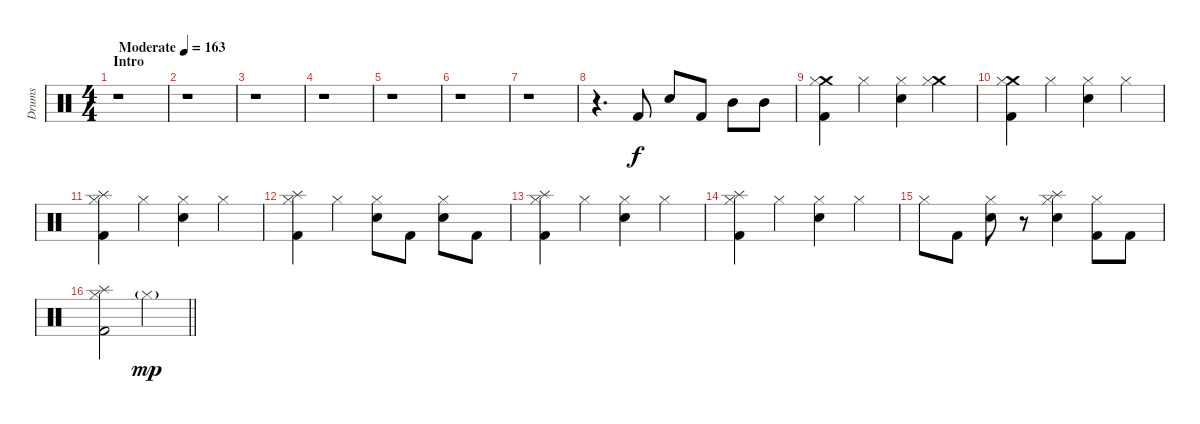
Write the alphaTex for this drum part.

\track ("Drums" "Drums") {instrument percussion}
\staff {score}
\articulation defaults
\ts (4 4)
\section ("" "Intro")
\tempo (163 "Moderate")
\clef neutral
\ks c
r.1{dy f} |
r.1 |
r.1 |
r.1 |
r.1 |
r.1 |
r.1 |
r.4{d} "Kick (hit) 2".8 "Snare (hit) 2".8 "Kick (hit) 2".8 "Mid Tom (hit)".8 "Mid Tom (hit)".8 |
("Crash medium (hit)" "Kick (hit) 2" "Hi-Hat (closed)").4 "Hi-Hat (closed)".4 ("Snare (hit) 2" "Hi-Hat (closed)").4 ("Crash medium (hit)" "Hi-Hat (closed)").4 |
("Crash medium (hit)" "Kick (hit) 2" "Hi-Hat (closed)").4 "Hi-Hat (closed)".4 ("Snare (hit) 2" "Hi-Hat (closed)").4 "Hi-Hat (closed)".4 |
("Splash (hit)" "Kick (hit) 2" "Hi-Hat (closed)").4 "Hi-Hat (closed)".4 ("Snare (hit) 2" "Hi-Hat (closed)").4 "Hi-Hat (closed)".4 |
("Splash (hit)" "Kick (hit) 2" "Hi-Hat (closed)").4 "Hi-Hat (closed)".4 ("Snare (hit) 2" "Hi-Hat (closed)").8 "Kick (hit) 2".8 ("Snare (hit) 2" "Hi-Hat (closed)").8 "Kick (hit) 2".8 |
("Splash (hit)" "Kick (hit) 2" "Hi-Hat (closed)").4 "Hi-Hat (closed)".4 ("Snare (hit) 2" "Hi-Hat (closed)").4 "Hi-Hat (closed)".4 |
("Splash (hit)" "Kick (hit) 2" "Hi-Hat (closed)").4 "Hi-Hat (closed)".4 ("Snare (hit) 2" "Hi-Hat (closed)").4 "Hi-Hat (closed)".4 |
"Hi-Hat (closed)".8 "Kick (hit) 2".8 ("Snare (hit) 2" "Hi-Hat (closed)").8 r.8 ("Splash (hit)" "Snare (hit) 2" "Hi-Hat (closed)").4 ("Kick (hit) 2" "Hi-Hat (closed)").8 "Kick (hit) 2".8 |
\barLineRight lightlight
("Splash (hit)" "Kick (hit) 2" "Hi-Hat (closed)").2 "Hi-Hat (closed)"{g}.2{dy mp}
